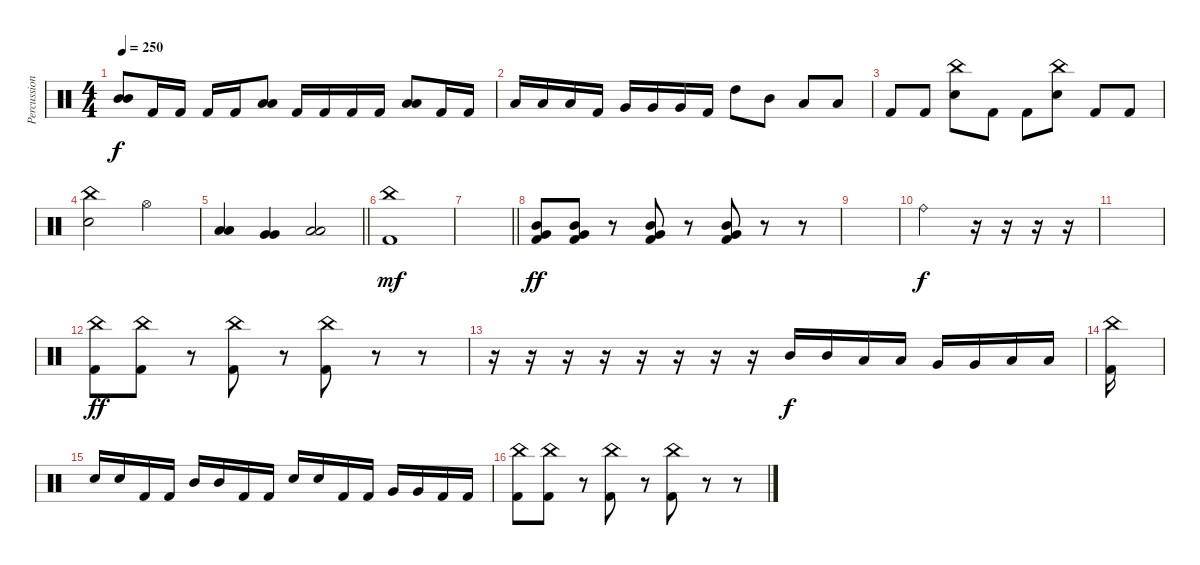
\track ("Percussions" "Percussion") {instrument percussion}
\staff {score}
\articulation defaults
\ts (4 4)
\tempo 250
\clef neutral
\ks c
("Mid Tom (hit)" "Mid Tom (hit)").8{dy f} "Kick (hit) 2".16 "Kick (hit) 2".16 "Kick (hit) 2".16 "Kick (hit) 2".16 ("Low Tom (hit)" "Low Tom (hit)").8 "Kick (hit) 2".16 "Kick (hit) 2".16 "Kick (hit) 2".16 "Kick (hit) 2".16 ("Low Floor Tom (hit)" "Low Floor Tom (hit)").8 "Kick (hit) 2".16 "Kick (hit) 2".16 |
"Low Tom (hit)".16 "Low Tom (hit)".16 "Low Tom (hit)".16 "Kick (hit) 2".16 "Very Low Tom (hit)".16 "Very Low Tom (hit)".16 "Very Low Tom (hit)".16 "Kick (hit) 2".16 "High Tom (hit)".8 "Mid Tom (hit)".8 "Low Tom (hit)".8 "Low Floor Tom (hit)".8 |
"Kick (hit) 2".8 "Kick (hit) 2".8 ("China (hit)" "Electric Snare (hit)").8 "Kick (hit) 2".8 "Kick (hit) 2".8 ("China (hit)" "Electric Snare (hit)").8 "Kick (hit) 2".8 "Kick (hit) 2".8 |
("China (hit)" "Electric Snare (hit)").2 "Hi-Hat (open)".2 |
\barLineRight lightlight
("Low Tom (hit)" "Low Tom (hit)").4 ("Very Low Tom (hit)" "Very Low Tom (hit)").4 ("Low Floor Tom (hit)" "Low Floor Tom (hit)").2 |
("China (hit)" "Kick (hit) 2").1{dy mf} |
\barLineRight lightlight
|
("Mid Tom (hit)" "Very Low Tom (hit)" "Kick (hit) 2").8{dy ff} ("Mid Tom (hit)" "Very Low Tom (hit)" "Kick (hit) 2").8 r.8 ("Mid Tom (hit)" "Very Low Tom (hit)" "Kick (hit) 2").8 r.8 ("Mid Tom (hit)" "Very Low Tom (hit)" "Kick (hit) 2").8 r.8 r.8 |
|
"Ride (bell)".2{dy f} r.16 r.16 r.16 r.16 |
|
("China (hit)" "Kick (hit) 2").8{dy ff} ("China (hit)" "Kick (hit) 2").8 r.8 ("China (hit)" "Kick (hit) 2").8 r.8 ("China (hit)" "Kick (hit) 2").8 r.8 r.8 |
r.16 r.16 r.16 r.16 r.16 r.16 r.16 r.16 "Mid Tom (hit)".16{dy f} "Mid Tom (hit)".16 "Low Tom (hit)".16 "Low Tom (hit)".16 "Very Low Tom (hit)".16 "Very Low Tom (hit)".16 "Low Floor Tom (hit)".16 "Low Floor Tom (hit)".16 |
("China (hit)" "Kick (hit) 2").16 |
"Electric Snare (hit)".16 "Electric Snare (hit)".16 "Kick (hit) 2".16 "Kick (hit) 2".16 "Mid Tom (hit)".16 "Mid Tom (hit)".16 "Kick (hit) 2".16 "Kick (hit) 2".16 "Electric Snare (hit)".16 "Electric Snare (hit)".16 "Kick (hit) 2".16 "Kick (hit) 2".16 "Very Low Tom (hit)".16 "Very Low Tom (hit)".16 "Kick (hit) 2".16 "Kick (hit) 2".16 |
("China (hit)" "Kick (hit) 2").8 ("China (hit)" "Kick (hit) 2").8 r.8 ("China (hit)" "Kick (hit) 2").8 r.8 ("China (hit)" "Kick (hit) 2").8 r.8 r.8
